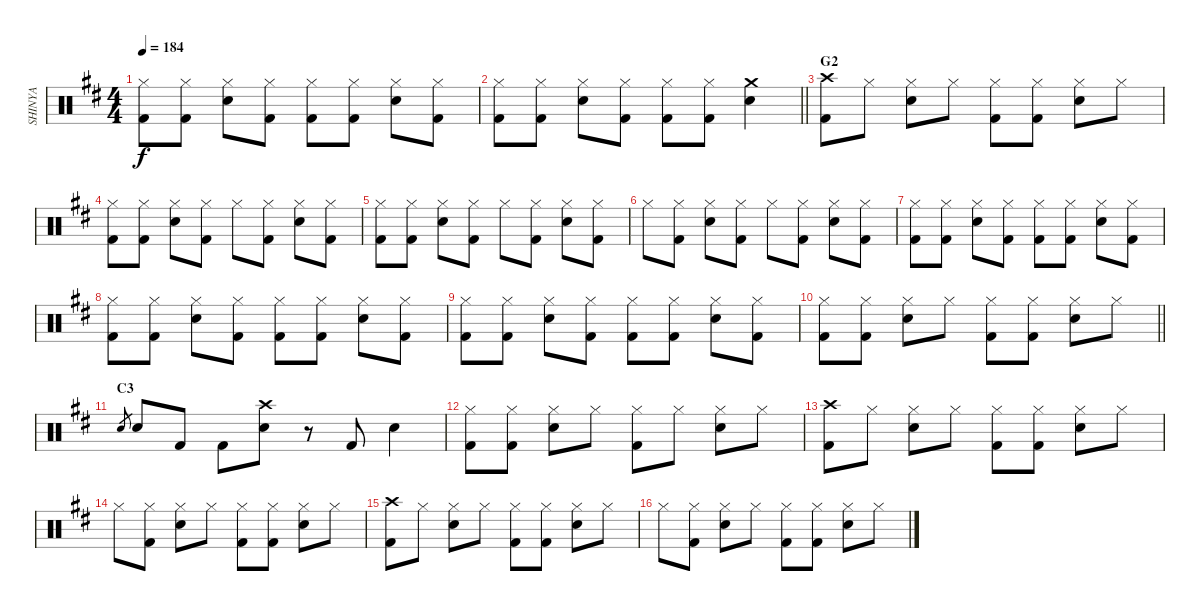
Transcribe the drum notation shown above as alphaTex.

\track ("SHINYA" "SHINYA") {instrument percussion}
\staff {score}
\articulation defaults
\ts (4 4)
\tempo 184
\clef neutral
\ks bminor
("Hi-Hat (closed)" "Kick (hit) 2").8{dy f} ("Hi-Hat (closed)" "Kick (hit) 2").8 ("Hi-Hat (closed)" "Snare (hit) 2").8 ("Hi-Hat (closed)" "Kick (hit) 2").8 ("Hi-Hat (closed)" "Kick (hit) 2").8 ("Hi-Hat (closed)" "Kick (hit) 2").8 ("Hi-Hat (closed)" "Snare (hit) 2").8 ("Hi-Hat (closed)" "Kick (hit) 2").8 |
\barLineRight lightlight
("Hi-Hat (closed)" "Kick (hit) 2").8 ("Hi-Hat (closed)" "Kick (hit) 2").8 ("Hi-Hat (closed)" "Snare (hit) 2").8 ("Hi-Hat (closed)" "Kick (hit) 2").8 ("Hi-Hat (closed)" "Kick (hit) 2").8 ("Hi-Hat (closed)" "Kick (hit) 2").8 ("Crash medium (hit)" "Snare (hit) 2").4 |
\section ("" "G2")
("Crash high (hit)" "Kick (hit) 2").8 "Hi-Hat (closed)".8 ("Hi-Hat (closed)" "Snare (hit) 2").8 "Hi-Hat (closed)".8 ("Hi-Hat (closed)" "Kick (hit) 2").8 ("Hi-Hat (closed)" "Kick (hit) 2").8 ("Hi-Hat (closed)" "Snare (hit) 2").8 "Hi-Hat (closed)".8 |
("Hi-Hat (closed)" "Kick (hit) 2").8 ("Hi-Hat (closed)" "Kick (hit) 2").8 ("Hi-Hat (closed)" "Snare (hit) 2").8 ("Hi-Hat (closed)" "Kick (hit) 2").8 "Hi-Hat (closed)".8 ("Hi-Hat (closed)" "Kick (hit) 2").8 ("Hi-Hat (closed)" "Snare (hit) 2").8 ("Hi-Hat (closed)" "Kick (hit) 2").8 |
("Hi-Hat (closed)" "Kick (hit) 2").8 ("Hi-Hat (closed)" "Kick (hit) 2").8 ("Hi-Hat (closed)" "Snare (hit) 2").8 ("Hi-Hat (closed)" "Kick (hit) 2").8 "Hi-Hat (closed)".8 ("Hi-Hat (closed)" "Kick (hit) 2").8 ("Hi-Hat (closed)" "Snare (hit) 2").8 ("Hi-Hat (closed)" "Kick (hit) 2").8 |
"Hi-Hat (closed)".8 ("Hi-Hat (closed)" "Kick (hit) 2").8 ("Hi-Hat (closed)" "Snare (hit) 2").8 ("Hi-Hat (closed)" "Kick (hit) 2").8 "Hi-Hat (closed)".8 ("Hi-Hat (closed)" "Kick (hit) 2").8 ("Hi-Hat (closed)" "Snare (hit) 2").8 ("Hi-Hat (closed)" "Kick (hit) 2").8 |
("Hi-Hat (closed)" "Kick (hit) 2").8 ("Hi-Hat (closed)" "Kick (hit) 2").8 ("Hi-Hat (closed)" "Snare (hit) 2").8 ("Hi-Hat (closed)" "Kick (hit) 2").8 ("Hi-Hat (closed)" "Kick (hit) 2").8 ("Hi-Hat (closed)" "Kick (hit) 2").8 ("Hi-Hat (closed)" "Snare (hit) 2").8 ("Hi-Hat (closed)" "Kick (hit) 2").8 |
("Hi-Hat (closed)" "Kick (hit) 2").8 ("Hi-Hat (closed)" "Kick (hit) 2").8 ("Hi-Hat (closed)" "Snare (hit) 2").8 ("Hi-Hat (closed)" "Kick (hit) 2").8 ("Hi-Hat (closed)" "Kick (hit) 2").8 ("Hi-Hat (closed)" "Kick (hit) 2").8 ("Hi-Hat (closed)" "Snare (hit) 2").8 ("Hi-Hat (closed)" "Kick (hit) 2").8 |
("Hi-Hat (closed)" "Kick (hit) 2").8 ("Hi-Hat (closed)" "Kick (hit) 2").8 ("Hi-Hat (closed)" "Snare (hit) 2").8 ("Hi-Hat (closed)" "Kick (hit) 2").8 ("Hi-Hat (closed)" "Kick (hit) 2").8 ("Hi-Hat (closed)" "Kick (hit) 2").8 ("Hi-Hat (closed)" "Snare (hit) 2").8 ("Hi-Hat (closed)" "Kick (hit) 2").8 |
\barLineRight lightlight
("Hi-Hat (closed)" "Kick (hit) 2").8 ("Hi-Hat (closed)" "Kick (hit) 2").8 ("Hi-Hat (closed)" "Snare (hit) 2").8 "Hi-Hat (closed)".8 ("Hi-Hat (closed)" "Kick (hit) 2").8 ("Hi-Hat (closed)" "Kick (hit) 2").8 ("Hi-Hat (closed)" "Snare (hit) 2").8 "Hi-Hat (closed)".8 |
\section ("" "C3")
"Snare (hit) 2".8{gr} "Snare (hit) 2".8 "Kick (hit) 2".8 "Kick (hit) 2".8 ("Crash high (hit)" "Snare (hit) 2").8 r.8 "Kick (hit) 2".8 "Snare (hit) 2".4 |
("Hi-Hat (closed)" "Kick (hit) 2").8 ("Hi-Hat (closed)" "Kick (hit) 2").8 ("Hi-Hat (closed)" "Snare (hit) 2").8 "Hi-Hat (closed)".8 ("Hi-Hat (closed)" "Kick (hit) 2").8 "Hi-Hat (closed)".8 ("Hi-Hat (closed)" "Snare (hit) 2").8 "Hi-Hat (closed)".8 |
("Crash high (hit)" "Kick (hit) 2").8 "Hi-Hat (closed)".8 ("Hi-Hat (closed)" "Snare (hit) 2").8 "Hi-Hat (closed)".8 ("Hi-Hat (closed)" "Kick (hit) 2").8 ("Hi-Hat (closed)" "Kick (hit) 2").8 ("Hi-Hat (closed)" "Snare (hit) 2").8 "Hi-Hat (closed)".8 |
"Hi-Hat (closed)".8 ("Hi-Hat (closed)" "Kick (hit) 2").8 ("Hi-Hat (closed)" "Snare (hit) 2").8 "Hi-Hat (closed)".8 ("Hi-Hat (closed)" "Kick (hit) 2").8 ("Hi-Hat (closed)" "Kick (hit) 2").8 ("Hi-Hat (closed)" "Snare (hit) 2").8 "Hi-Hat (closed)".8 |
("Crash high (hit)" "Kick (hit) 2").8 "Hi-Hat (closed)".8 ("Hi-Hat (closed)" "Snare (hit) 2").8 "Hi-Hat (closed)".8 ("Hi-Hat (closed)" "Kick (hit) 2").8 ("Hi-Hat (closed)" "Kick (hit) 2").8 ("Hi-Hat (closed)" "Snare (hit) 2").8 "Hi-Hat (closed)".8 |
"Hi-Hat (closed)".8 ("Hi-Hat (closed)" "Kick (hit) 2").8 ("Hi-Hat (closed)" "Snare (hit) 2").8 "Hi-Hat (closed)".8 ("Hi-Hat (closed)" "Kick (hit) 2").8 ("Hi-Hat (closed)" "Kick (hit) 2").8 ("Hi-Hat (closed)" "Snare (hit) 2").8 "Hi-Hat (closed)".8
